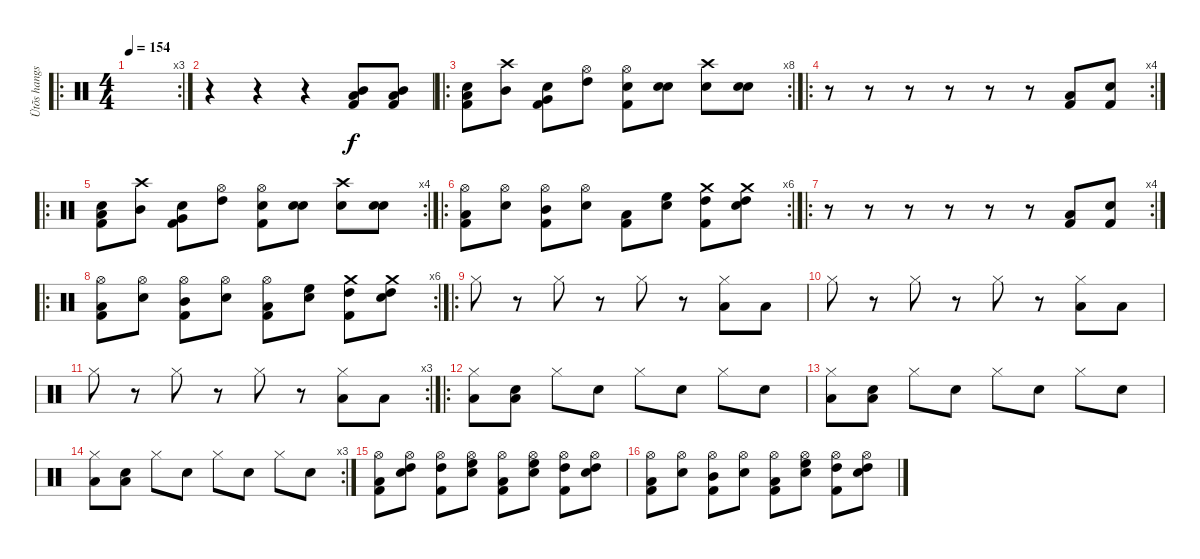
\track ("Ütõs hangszer" "Ütõs hangs") {instrument percussion}
\staff {score}
\articulation defaults
\ro
\rc 3
\ts (4 4)
\tempo 154
\clef neutral
\ks c
|
r.4 r.4 r.4 ("Low Tom (hit)" "Mid Tom (hit)" "Kick (hit) 2").8 ("Low Tom (hit)" "Mid Tom (hit)" "Kick (hit) 2").8 |
\ro
\rc 8
("Low Tom (hit)" "Snare (hit) 2" "Kick (hit) 2").8 ("Mid Tom (hit)" "Crash high (hit)").8 ("Very Low Tom (hit)" "Snare (hit) 2" "Kick (hit) 2").8 ("High Tom (hit)" "Hi-Hat (open)").8 ("Snare (hit) 2" "Hi-Hat (open)" "Kick (hit) 2").8 ("Snare (hit) 2" "Snare (hit) 2").8 ("Snare (hit) 2" "Crash high (hit)").8 ("Snare (hit) 2" "Snare (hit) 2").8 |
\ro
\rc 4
r.8 r.8 r.8 r.8 r.8 r.8 ("Low Tom (hit)" "Kick (hit) 2").8 ("Snare (hit) 2" "Kick (hit) 2").8 |
\ro
\rc 4
("Low Tom (hit)" "Snare (hit) 2" "Kick (hit) 2").8 ("Mid Tom (hit)" "Crash high (hit)").8 ("Very Low Tom (hit)" "Snare (hit) 2" "Kick (hit) 2").8 ("High Tom (hit)" "Hi-Hat (open)").8 ("Snare (hit) 2" "Hi-Hat (open)" "Kick (hit) 2").8 ("Snare (hit) 2" "Snare (hit) 2").8 ("Snare (hit) 2" "Crash high (hit)").8 ("Snare (hit) 2" "Snare (hit) 2").8 |
\ro
\rc 6
("Hi-Hat (open)" "Low Tom (hit)" "Kick (hit) 2").8 ("Hi-Hat (open)" "Snare (hit) 2").8 ("Hi-Hat (open)" "Mid Tom (hit)" "Kick (hit) 2").8 ("Hi-Hat (open)" "Snare (hit) 2").8 ("Low Tom (hit)" "Kick (hit) 2").8 ("High Floor Tom (hit)" "Snare (hit) 2").8 ("Crash medium (hit)" "High Tom (hit)" "Kick (hit) 2").8 ("Crash medium (hit)" "High Tom (hit)" "Snare (hit) 2").8 |
\ro
\rc 4
r.8 r.8 r.8 r.8 r.8 r.8 ("Low Tom (hit)" "Kick (hit) 2").8 ("Snare (hit) 2" "Kick (hit) 2").8 |
\ro
\rc 6
("Hi-Hat (open)" "Low Tom (hit)" "Kick (hit) 2").8 ("Hi-Hat (open)" "Snare (hit) 2").8 ("Hi-Hat (open)" "Mid Tom (hit)" "Kick (hit) 2").8 ("Hi-Hat (open)" "Snare (hit) 2").8 ("Hi-Hat (open)" "Low Tom (hit)" "Kick (hit) 2").8 ("High Floor Tom (hit)" "Snare (hit) 2").8 ("Crash medium (hit)" "High Tom (hit)" "Kick (hit) 2").8 ("Crash medium (hit)" "High Tom (hit)" "Snare (hit) 2").8 |
\ro "Hi-Hat (closed)".8
r.8 "Hi-Hat (closed)".8 r.8 "Hi-Hat (closed)".8 r.8 ("Low Tom (hit)" "Hi-Hat (closed)").8 "Low Tom (hit)".8 |
"Hi-Hat (closed)".8 r.8 "Hi-Hat (closed)".8 r.8 "Hi-Hat (closed)".8 r.8 ("Low Tom (hit)" "Hi-Hat (closed)").8 "Low Tom (hit)".8 |
\rc 3 "Hi-Hat (closed)".8
r.8 "Hi-Hat (closed)".8 r.8 "Hi-Hat (closed)".8 r.8 ("Low Tom (hit)" "Hi-Hat (closed)").8 "Low Tom (hit)".8 |
\ro
("Low Tom (hit)" "Hi-Hat (closed)").8 ("Low Tom (hit)" "Snare (hit) 2").8 "Hi-Hat (closed)".8 "Snare (hit) 2".8 "Hi-Hat (closed)".8 "Snare (hit) 2".8 "Hi-Hat (closed)".8 "Snare (hit) 2".8 |
("Low Tom (hit)" "Hi-Hat (closed)").8 ("Low Tom (hit)" "Snare (hit) 2").8 "Hi-Hat (closed)".8 "Snare (hit) 2".8 "Hi-Hat (closed)".8 "Snare (hit) 2".8 "Hi-Hat (closed)".8 "Snare (hit) 2".8 |
\rc 3
("Low Tom (hit)" "Hi-Hat (closed)").8 ("Low Tom (hit)" "Snare (hit) 2").8 "Hi-Hat (closed)".8 "Snare (hit) 2".8 "Hi-Hat (closed)".8 "Snare (hit) 2".8 "Hi-Hat (closed)".8 "Snare (hit) 2".8 |
("Hi-Hat (open)" "Low Tom (hit)" "Kick (hit) 2").8 ("Hi-Hat (open)" "High Tom (hit)" "Snare (hit) 2").8 ("Hi-Hat (open)" "High Tom (hit)" "Kick (hit) 2").8 ("Hi-Hat (open)" "High Floor Tom (hit)" "Snare (hit) 2").8 ("Hi-Hat (open)" "Low Tom (hit)" "Kick (hit) 2").8 ("Hi-Hat (open)" "High Floor Tom (hit)" "Snare (hit) 2").8 ("Hi-Hat (open)" "High Tom (hit)" "Kick (hit) 2").8 ("Hi-Hat (open)" "High Tom (hit)" "Snare (hit) 2").8 |
("Hi-Hat (open)" "Low Tom (hit)" "Kick (hit) 2").8 ("Hi-Hat (open)" "Snare (hit) 2").8 ("Hi-Hat (open)" "Mid Tom (hit)" "Kick (hit) 2").8 ("Hi-Hat (open)" "Snare (hit) 2").8 ("Hi-Hat (open)" "Low Tom (hit)" "Kick (hit) 2").8 ("Hi-Hat (open)" "High Floor Tom (hit)" "Snare (hit) 2").8 ("Hi-Hat (open)" "High Tom (hit)" "Kick (hit) 2").8 ("Hi-Hat (open)" "High Tom (hit)" "Snare (hit) 2").8
